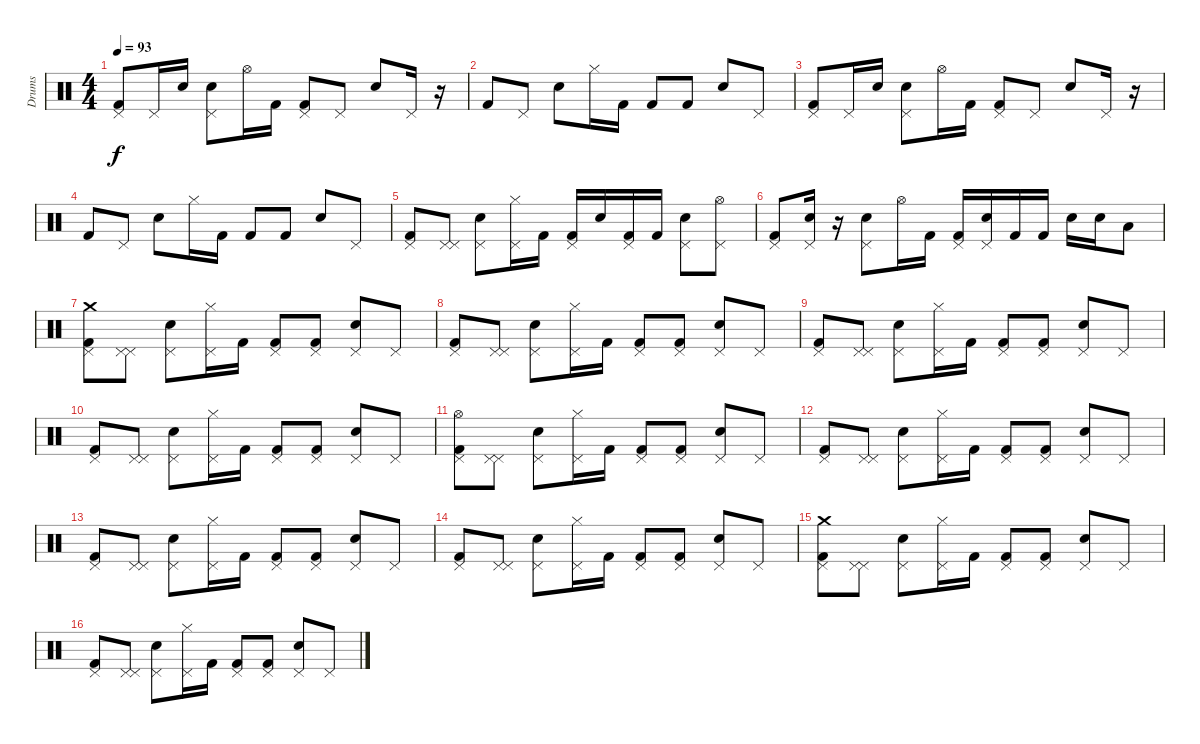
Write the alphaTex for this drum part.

\track ("Drums" "Drums") {instrument percussion}
\staff {score}
\articulation defaults
\ts (4 4)
\tempo 93
\clef neutral
\ks c
("Pedal Hi-Hat (hit)" "Kick (hit) 2").8{dy f} "Pedal Hi-Hat (hit)".16 "Electric Snare (hit)".16 ("Electric Snare (hit)" "Pedal Hi-Hat (hit)").8 "Hi-Hat (open)".16 "Kick (hit) 2".16 ("Pedal Hi-Hat (hit)" "Kick (hit) 2").8 "Pedal Hi-Hat (hit)".8 "Electric Snare (hit)".8 "Pedal Hi-Hat (hit)".16 r.16 |
"Kick (hit) 2".8 "Pedal Hi-Hat (hit)".8 "Electric Snare (hit)".8 "Hi-Hat (closed)".16 "Kick (hit) 2".16 "Kick (hit) 2".8 "Kick (hit) 2".8 "Electric Snare (hit)".8 "Pedal Hi-Hat (hit)".8 |
("Pedal Hi-Hat (hit)" "Kick (hit) 2").8 "Pedal Hi-Hat (hit)".16 "Electric Snare (hit)".16 ("Electric Snare (hit)" "Pedal Hi-Hat (hit)").8 "Hi-Hat (open)".16 "Kick (hit) 2".16 ("Pedal Hi-Hat (hit)" "Kick (hit) 2").8 "Pedal Hi-Hat (hit)".8 "Electric Snare (hit)".8 "Pedal Hi-Hat (hit)".16 r.16 |
"Kick (hit) 2".8 "Pedal Hi-Hat (hit)".8 "Electric Snare (hit)".8 "Hi-Hat (closed)".16 "Kick (hit) 2".16 "Kick (hit) 2".8 "Kick (hit) 2".8 "Electric Snare (hit)".8 "Pedal Hi-Hat (hit)".8 |
("Pedal Hi-Hat (hit)" "Kick (hit) 2").8 ("Pedal Hi-Hat (hit)" "Pedal Hi-Hat (hit)").8 ("Electric Snare (hit)" "Pedal Hi-Hat (hit)").8 ("Hi-Hat (closed)" "Pedal Hi-Hat (hit)").16 "Kick (hit) 2".16 ("Pedal Hi-Hat (hit)" "Kick (hit) 2").16 "Electric Snare (hit)".16 ("Pedal Hi-Hat (hit)" "Kick (hit) 2").16 "Kick (hit) 2".16 ("Electric Snare (hit)" "Pedal Hi-Hat (hit)").8 ("Hi-Hat (open)" "Pedal Hi-Hat (hit)").8 |
("Pedal Hi-Hat (hit)" "Kick (hit) 2").8 ("Electric Snare (hit)" "Pedal Hi-Hat (hit)").16 r.16 ("Electric Snare (hit)" "Pedal Hi-Hat (hit)").8 "Hi-Hat (open)".16 "Kick (hit) 2".16 ("Pedal Hi-Hat (hit)" "Kick (hit) 2").16 ("Electric Snare (hit)" "Pedal Hi-Hat (hit)").16 "Kick (hit) 2".16 "Kick (hit) 2".16 "Electric Snare (hit)".16 "Electric Snare (hit)".16 "Low Tom (hit)".8 |
("Crash medium (hit)" "Pedal Hi-Hat (hit)" "Kick (hit) 2").8 ("Pedal Hi-Hat (hit)" "Pedal Hi-Hat (hit)").8 ("Electric Snare (hit)" "Pedal Hi-Hat (hit)").8 ("Hi-Hat (closed)" "Pedal Hi-Hat (hit)").16 "Kick (hit) 2".16 ("Pedal Hi-Hat (hit)" "Kick (hit) 2").8 ("Pedal Hi-Hat (hit)" "Kick (hit) 2").8 ("Electric Snare (hit)" "Pedal Hi-Hat (hit)").8 "Pedal Hi-Hat (hit)".8 |
("Pedal Hi-Hat (hit)" "Kick (hit) 2").8 ("Pedal Hi-Hat (hit)" "Pedal Hi-Hat (hit)").8 ("Electric Snare (hit)" "Pedal Hi-Hat (hit)").8 ("Hi-Hat (closed)" "Pedal Hi-Hat (hit)").16 "Kick (hit) 2".16 ("Pedal Hi-Hat (hit)" "Kick (hit) 2").8 ("Pedal Hi-Hat (hit)" "Kick (hit) 2").8 ("Electric Snare (hit)" "Pedal Hi-Hat (hit)").8 "Pedal Hi-Hat (hit)".8 |
("Pedal Hi-Hat (hit)" "Kick (hit) 2").8 ("Pedal Hi-Hat (hit)" "Pedal Hi-Hat (hit)").8 ("Electric Snare (hit)" "Pedal Hi-Hat (hit)").8 ("Hi-Hat (closed)" "Pedal Hi-Hat (hit)").16 "Kick (hit) 2".16 ("Pedal Hi-Hat (hit)" "Kick (hit) 2").8 ("Pedal Hi-Hat (hit)" "Kick (hit) 2").8 ("Electric Snare (hit)" "Pedal Hi-Hat (hit)").8 "Pedal Hi-Hat (hit)".8 |
("Pedal Hi-Hat (hit)" "Kick (hit) 2").8 ("Pedal Hi-Hat (hit)" "Pedal Hi-Hat (hit)").8 ("Electric Snare (hit)" "Pedal Hi-Hat (hit)").8 ("Hi-Hat (closed)" "Pedal Hi-Hat (hit)").16 "Kick (hit) 2".16 ("Pedal Hi-Hat (hit)" "Kick (hit) 2").8 ("Pedal Hi-Hat (hit)" "Kick (hit) 2").8 ("Electric Snare (hit)" "Pedal Hi-Hat (hit)").8 "Pedal Hi-Hat (hit)".8 |
("Hi-Hat (open)" "Pedal Hi-Hat (hit)" "Kick (hit) 2").8 ("Pedal Hi-Hat (hit)" "Pedal Hi-Hat (hit)").8 ("Electric Snare (hit)" "Pedal Hi-Hat (hit)").8 ("Hi-Hat (closed)" "Pedal Hi-Hat (hit)").16 "Kick (hit) 2".16 ("Pedal Hi-Hat (hit)" "Kick (hit) 2").8 ("Pedal Hi-Hat (hit)" "Kick (hit) 2").8 ("Electric Snare (hit)" "Pedal Hi-Hat (hit)").8 "Pedal Hi-Hat (hit)".8 |
("Pedal Hi-Hat (hit)" "Kick (hit) 2").8 ("Pedal Hi-Hat (hit)" "Pedal Hi-Hat (hit)").8 ("Electric Snare (hit)" "Pedal Hi-Hat (hit)").8 ("Hi-Hat (closed)" "Pedal Hi-Hat (hit)").16 "Kick (hit) 2".16 ("Pedal Hi-Hat (hit)" "Kick (hit) 2").8 ("Pedal Hi-Hat (hit)" "Kick (hit) 2").8 ("Electric Snare (hit)" "Pedal Hi-Hat (hit)").8 "Pedal Hi-Hat (hit)".8 |
("Pedal Hi-Hat (hit)" "Kick (hit) 2").8 ("Pedal Hi-Hat (hit)" "Pedal Hi-Hat (hit)").8 ("Electric Snare (hit)" "Pedal Hi-Hat (hit)").8 ("Hi-Hat (closed)" "Pedal Hi-Hat (hit)").16 "Kick (hit) 2".16 ("Pedal Hi-Hat (hit)" "Kick (hit) 2").8 ("Pedal Hi-Hat (hit)" "Kick (hit) 2").8 ("Electric Snare (hit)" "Pedal Hi-Hat (hit)").8 "Pedal Hi-Hat (hit)".8 |
("Pedal Hi-Hat (hit)" "Kick (hit) 2").8 ("Pedal Hi-Hat (hit)" "Pedal Hi-Hat (hit)").8 ("Electric Snare (hit)" "Pedal Hi-Hat (hit)").8 ("Hi-Hat (closed)" "Pedal Hi-Hat (hit)").16 "Kick (hit) 2".16 ("Pedal Hi-Hat (hit)" "Kick (hit) 2").8 ("Pedal Hi-Hat (hit)" "Kick (hit) 2").8 ("Electric Snare (hit)" "Pedal Hi-Hat (hit)").8 "Pedal Hi-Hat (hit)".8 |
("Crash medium (hit)" "Pedal Hi-Hat (hit)" "Kick (hit) 2").8 ("Pedal Hi-Hat (hit)" "Pedal Hi-Hat (hit)").8 ("Electric Snare (hit)" "Pedal Hi-Hat (hit)").8 ("Hi-Hat (closed)" "Pedal Hi-Hat (hit)").16 "Kick (hit) 2".16 ("Pedal Hi-Hat (hit)" "Kick (hit) 2").8 ("Pedal Hi-Hat (hit)" "Kick (hit) 2").8 ("Electric Snare (hit)" "Pedal Hi-Hat (hit)").8 "Pedal Hi-Hat (hit)".8 |
("Pedal Hi-Hat (hit)" "Kick (hit) 2").8 ("Pedal Hi-Hat (hit)" "Pedal Hi-Hat (hit)").8 ("Electric Snare (hit)" "Pedal Hi-Hat (hit)").8 ("Hi-Hat (closed)" "Pedal Hi-Hat (hit)").16 "Kick (hit) 2".16 ("Pedal Hi-Hat (hit)" "Kick (hit) 2").8 ("Pedal Hi-Hat (hit)" "Kick (hit) 2").8 ("Electric Snare (hit)" "Pedal Hi-Hat (hit)").8 "Pedal Hi-Hat (hit)".8
